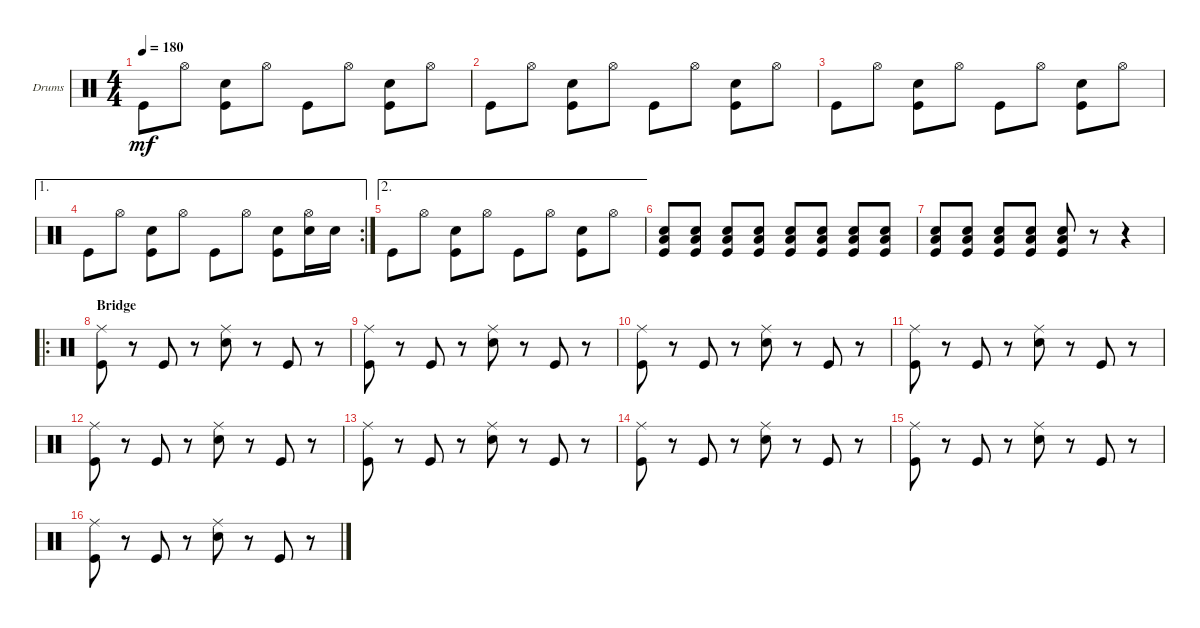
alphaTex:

\defaultSystemsLayout 4
\bracketExtendMode groupsimilarinstruments
\firstSystemTrackNameOrientation horizontal
\otherSystemsTrackNameOrientation horizontal
\track ("Drums" "Drums") {instrument percussion}
\staff {score}
\articulation defaults
\ts (4 4)
\tempo 180
\clef neutral
\ks c "Kick (hit)".8{dy mf} "Hi-Hat (open)".8
("Snare (hit) 2" "Kick (hit)").8 "Hi-Hat (open)".8 "Kick (hit)".8 "Hi-Hat (open)".8 ("Snare (hit) 2" "Kick (hit)").8 "Hi-Hat (open)".8 |
"Kick (hit)".8 "Hi-Hat (open)".8 ("Snare (hit) 2" "Kick (hit)").8 "Hi-Hat (open)".8 "Kick (hit)".8 "Hi-Hat (open)".8 ("Snare (hit) 2" "Kick (hit)").8 "Hi-Hat (open)".8 |
"Kick (hit)".8 "Hi-Hat (open)".8 ("Snare (hit) 2" "Kick (hit)").8 "Hi-Hat (open)".8 "Kick (hit)".8 "Hi-Hat (open)".8 ("Snare (hit) 2" "Kick (hit)").8 "Hi-Hat (open)".8 |
\ae 1
\rc 2 "Kick (hit)".8 "Hi-Hat (open)".8
("Snare (hit) 2" "Kick (hit)").8 "Hi-Hat (open)".8 "Kick (hit)".8 "Hi-Hat (open)".8 ("Snare (hit) 2" "Kick (hit)").8 ("Hi-Hat (open)" "Snare (hit) 2").16 "Snare (hit) 2".16 |
\ae 2 "Kick (hit)".8 "Hi-Hat (open)".8
("Snare (hit) 2" "Kick (hit)").8 "Hi-Hat (open)".8 "Kick (hit)".8 "Hi-Hat (open)".8 ("Snare (hit) 2" "Kick (hit)").8 "Hi-Hat (open)".8 |
("Kick (hit)" "Snare (hit) 2" "Low Tom (hit)").8 ("Kick (hit)" "Snare (hit) 2" "Low Tom (hit)").8 ("Kick (hit)" "Snare (hit) 2" "Low Tom (hit)").8 ("Kick (hit)" "Snare (hit) 2" "Low Tom (hit)").8 ("Kick (hit)" "Snare (hit) 2" "Low Tom (hit)").8 ("Kick (hit)" "Snare (hit) 2" "Low Tom (hit)").8 ("Kick (hit)" "Snare (hit) 2" "Low Tom (hit)").8 ("Kick (hit)" "Snare (hit) 2" "Low Tom (hit)").8 |
("Kick (hit)" "Snare (hit) 2" "Low Tom (hit)").8 ("Kick (hit)" "Snare (hit) 2" "Low Tom (hit)").8 ("Kick (hit)" "Snare (hit) 2" "Low Tom (hit)").8 ("Kick (hit)" "Snare (hit) 2" "Low Tom (hit)").8 ("Low Tom (hit)" "Snare (hit) 2" "Kick (hit)").8 r.8 r.4 |
\ro
\section ("" "Bridge")
("Kick (hit)" "Ride (middle)").8 r.8 "Kick (hit)".8 r.8 ("Snare (hit) 2" "Ride (middle)").8 r.8 "Kick (hit)".8 r.8 |
("Kick (hit)" "Ride (middle)").8 r.8 "Kick (hit)".8 r.8 ("Snare (hit) 2" "Ride (middle)").8 r.8 "Kick (hit)".8 r.8 |
("Kick (hit)" "Ride (middle)").8 r.8 "Kick (hit)".8 r.8 ("Snare (hit) 2" "Ride (middle)").8 r.8 "Kick (hit)".8 r.8 |
("Kick (hit)" "Ride (middle)").8 r.8 "Kick (hit)".8 r.8 ("Snare (hit) 2" "Ride (middle)").8 r.8 "Kick (hit)".8 r.8 |
("Kick (hit)" "Ride (middle)").8 r.8 "Kick (hit)".8 r.8 ("Snare (hit) 2" "Ride (middle)").8 r.8 "Kick (hit)".8 r.8 |
("Kick (hit)" "Ride (middle)").8 r.8 "Kick (hit)".8 r.8 ("Snare (hit) 2" "Ride (middle)").8 r.8 "Kick (hit)".8 r.8 |
("Kick (hit)" "Ride (middle)").8 r.8 "Kick (hit)".8 r.8 ("Snare (hit) 2" "Ride (middle)").8 r.8 "Kick (hit)".8 r.8 |
("Kick (hit)" "Ride (middle)").8 r.8 "Kick (hit)".8 r.8 ("Snare (hit) 2" "Ride (middle)").8 r.8 "Kick (hit)".8 r.8 |
("Kick (hit)" "Ride (middle)").8 r.8 "Kick (hit)".8 r.8 ("Snare (hit) 2" "Ride (middle)").8 r.8 "Kick (hit)".8 r.8
